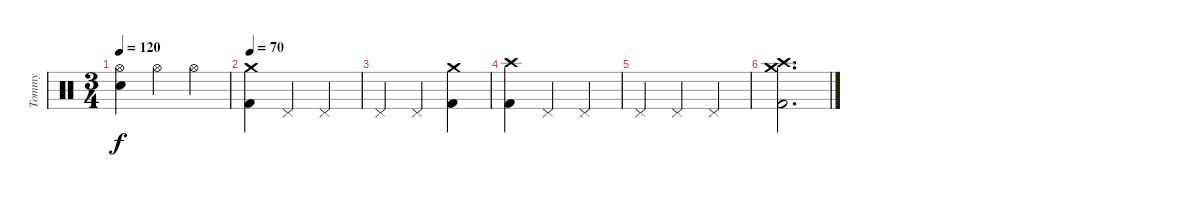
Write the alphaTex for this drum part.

\track ("Tommy" "Tommy") {instrument percussion}
\staff {score}
\articulation defaults
\ts (3 4)
\tempo 120
\clef neutral
\ks c
("Hi-Hat (open)" "Electric Snare (hit)").4{dy f} "Hi-Hat (open)".4 "Hi-Hat (open)".4 |
\tempo 70
("Crash medium (hit)" "Kick (hit) 2").4 "Pedal Hi-Hat (hit)".4 "Pedal Hi-Hat (hit)".4 |
"Pedal Hi-Hat (hit)".4 "Pedal Hi-Hat (hit)".4 ("Crash medium (hit)" "Kick (hit) 2").4 |
("Crash high (hit)" "Kick (hit) 2").4 "Pedal Hi-Hat (hit)".4 "Pedal Hi-Hat (hit)".4 |
"Pedal Hi-Hat (hit)".4 "Pedal Hi-Hat (hit)".4 "Pedal Hi-Hat (hit)".4 |
("Crash high (hit)" "Crash medium (hit)" "Kick (hit) 2").2{d}
